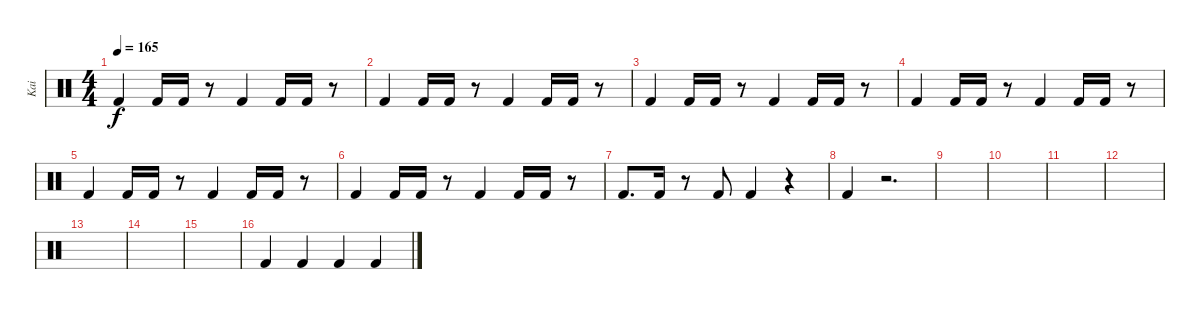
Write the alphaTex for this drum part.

\track ("Kai" "Kai") {instrument percussion}
\staff {score}
\articulation defaults
\ts (4 4)
\tempo 165
\clef neutral
\ks c "Kick (hit) 2".4{dy f} "Kick (hit) 2".16 "Kick (hit) 2".16
r.8 "Kick (hit) 2".4 "Kick (hit) 2".16 "Kick (hit) 2".16 r.8 |
"Kick (hit) 2".4 "Kick (hit) 2".16 "Kick (hit) 2".16 r.8 "Kick (hit) 2".4 "Kick (hit) 2".16 "Kick (hit) 2".16 r.8 |
"Kick (hit) 2".4 "Kick (hit) 2".16 "Kick (hit) 2".16 r.8 "Kick (hit) 2".4 "Kick (hit) 2".16 "Kick (hit) 2".16 r.8 |
"Kick (hit) 2".4 "Kick (hit) 2".16 "Kick (hit) 2".16 r.8 "Kick (hit) 2".4 "Kick (hit) 2".16 "Kick (hit) 2".16 r.8 |
"Kick (hit) 2".4 "Kick (hit) 2".16 "Kick (hit) 2".16 r.8 "Kick (hit) 2".4 "Kick (hit) 2".16 "Kick (hit) 2".16 r.8 |
"Kick (hit) 2".4 "Kick (hit) 2".16 "Kick (hit) 2".16 r.8 "Kick (hit) 2".4 "Kick (hit) 2".16 "Kick (hit) 2".16 r.8 |
"Kick (hit) 2".8{d} "Kick (hit) 2".16 r.8 "Kick (hit) 2".8 "Kick (hit) 2".4 r.4 |
"Kick (hit) 2".4 r.2{d} |
|
|
|
|
|
|
|
"Kick (hit) 2".4 "Kick (hit) 2".4 "Kick (hit) 2".4 "Kick (hit) 2".4
